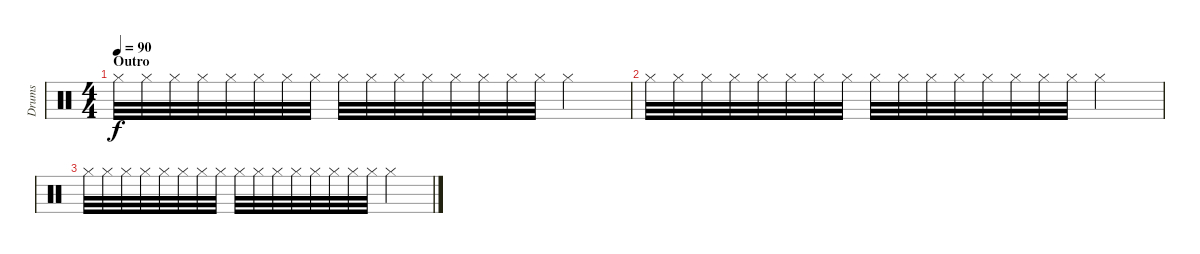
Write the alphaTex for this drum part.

\track ("Drums" "Drums") {instrument percussion}
\staff {score}
\articulation defaults
\ts (4 4)
\section ("" "Outro")
\tempo 90
\clef neutral
\ks c "Hi-Hat (closed)".32{dy f} "Hi-Hat (closed)".32 "Hi-Hat (closed)".32 "Hi-Hat (closed)".32 "Hi-Hat (closed)".32 "Hi-Hat (closed)".32 "Hi-Hat (closed)".32 "Hi-Hat (closed)".32 "Hi-Hat (closed)".32 "Hi-Hat (closed)".32 "Hi-Hat (closed)".32 "Hi-Hat (closed)".32 "Hi-Hat (closed)".32 "Hi-Hat (closed)".32 "Hi-Hat (closed)".32 "Hi-Hat (closed)".32 "Hi-Hat (closed)".2
|
"Hi-Hat (closed)".32 "Hi-Hat (closed)".32 "Hi-Hat (closed)".32 "Hi-Hat (closed)".32 "Hi-Hat (closed)".32 "Hi-Hat (closed)".32 "Hi-Hat (closed)".32 "Hi-Hat (closed)".32 "Hi-Hat (closed)".32 "Hi-Hat (closed)".32 "Hi-Hat (closed)".32 "Hi-Hat (closed)".32 "Hi-Hat (closed)".32 "Hi-Hat (closed)".32 "Hi-Hat (closed)".32 "Hi-Hat (closed)".32 "Hi-Hat (closed)".2 |
"Hi-Hat (closed)".32 "Hi-Hat (closed)".32 "Hi-Hat (closed)".32 "Hi-Hat (closed)".32 "Hi-Hat (closed)".32 "Hi-Hat (closed)".32 "Hi-Hat (closed)".32 "Hi-Hat (closed)".32 "Hi-Hat (closed)".32 "Hi-Hat (closed)".32 "Hi-Hat (closed)".32 "Hi-Hat (closed)".32 "Hi-Hat (closed)".32 "Hi-Hat (closed)".32 "Hi-Hat (closed)".32 "Hi-Hat (closed)".32 "Hi-Hat (closed)".2
